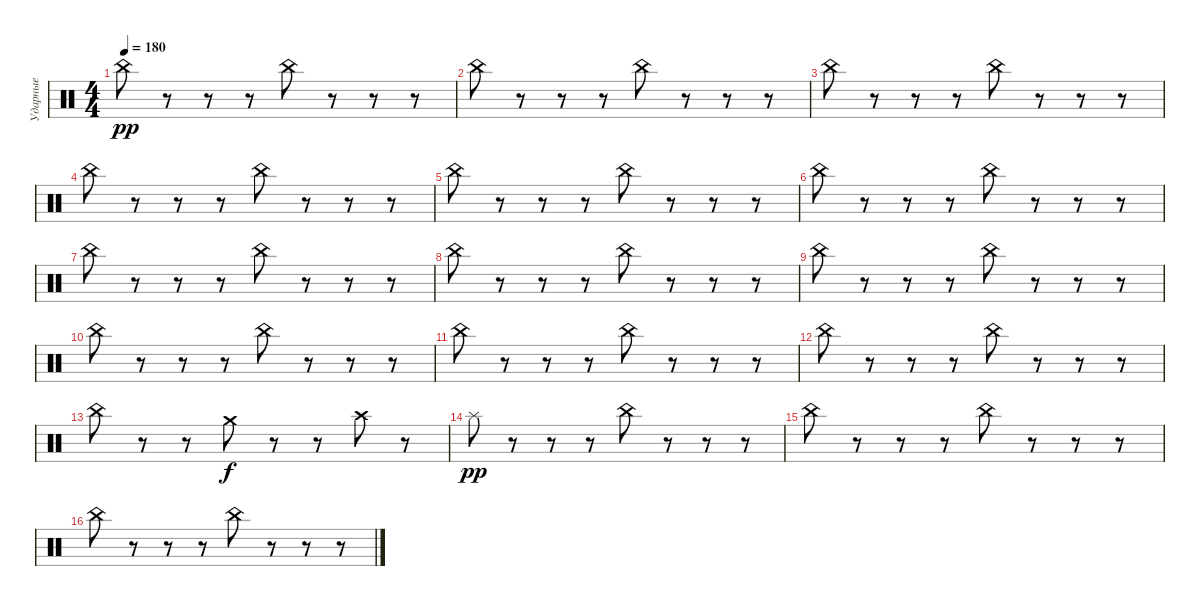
\track ("Ударные" "Ударные") {instrument percussion}
\staff {score}
\articulation defaults
\ts (4 4)
\tempo 180
\clef neutral
\ks c "China (hit)".8{dy pp}
r.8 r.8 r.8 "China (hit)".8 r.8 r.8 r.8 |
"China (hit)".8 r.8 r.8 r.8 "China (hit)".8 r.8 r.8 r.8 |
"China (hit)".8 r.8 r.8 r.8 "China (hit)".8 r.8 r.8 r.8 |
"China (hit)".8 r.8 r.8 r.8 "China (hit)".8 r.8 r.8 r.8 |
"China (hit)".8 r.8 r.8 r.8 "China (hit)".8 r.8 r.8 r.8 |
"China (hit)".8 r.8 r.8 r.8 "China (hit)".8 r.8 r.8 r.8 |
"China (hit)".8 r.8 r.8 r.8 "China (hit)".8 r.8 r.8 r.8 |
"China (hit)".8 r.8 r.8 r.8 "China (hit)".8 r.8 r.8 r.8 |
"China (hit)".8 r.8 r.8 r.8 "China (hit)".8 r.8 r.8 r.8 |
"China (hit)".8 r.8 r.8 r.8 "China (hit)".8 r.8 r.8 r.8 |
"China (hit)".8 r.8 r.8 r.8 "China (hit)".8 r.8 r.8 r.8 |
"China (hit)".8 r.8 r.8 r.8 "China (hit)".8 r.8 r.8 r.8 |
"China (hit)".8 r.8 r.8 "Crash medium (hit)".8{dy f} r.8 r.8 "Crash high (hit)".8 r.8 |
"Splash (hit)".8{dy pp} r.8 r.8 r.8 "China (hit)".8 r.8 r.8 r.8 |
"China (hit)".8 r.8 r.8 r.8 "China (hit)".8 r.8 r.8 r.8 |
"China (hit)".8 r.8 r.8 r.8 "China (hit)".8 r.8 r.8 r.8
